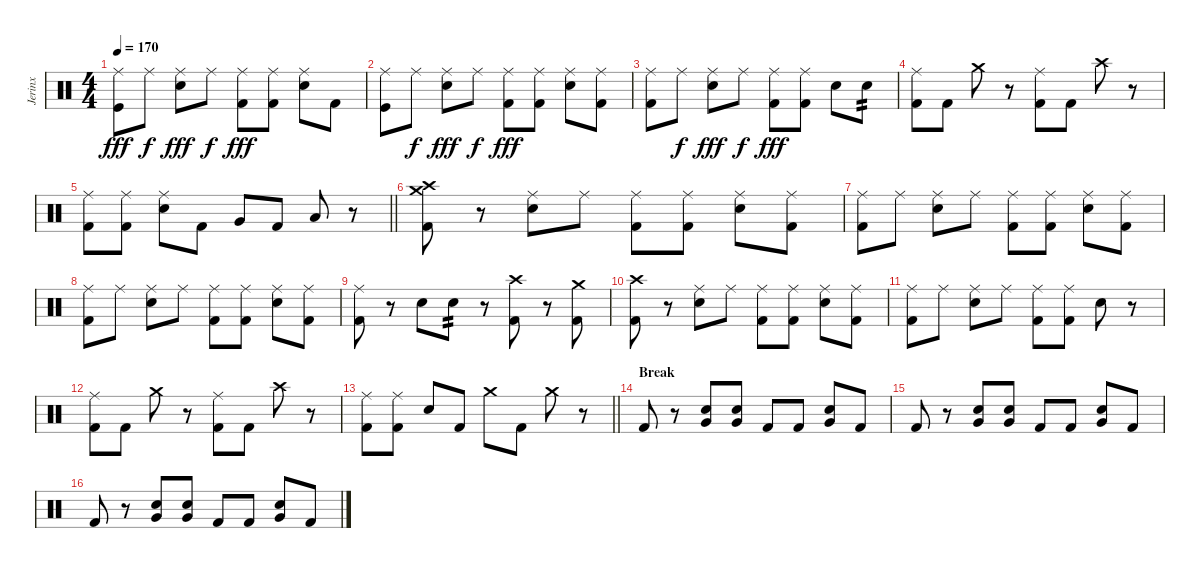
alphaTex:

\track ("Jerinx" "Jerinx") {instrument percussion}
\staff {score}
\articulation defaults
\ts (4 4)
\tempo 170
\clef neutral
\ks c
("Kick (hit)" "Ride (middle)").8{dy fff} "Ride (middle)".8{dy f} ("Snare (hit) 2" "Ride (middle)").8{dy fff} "Ride (middle)".8{dy f} ("Kick (hit) 2" "Ride (middle)").8{dy fff} ("Kick (hit) 2" "Ride (middle)").8 ("Snare (hit) 2" "Ride (middle)").8 "Kick (hit) 2".8 |
("Kick (hit)" "Ride (middle)").8 "Ride (middle)".8{dy f} ("Snare (hit) 2" "Ride (middle)").8{dy fff} "Ride (middle)".8{dy f} ("Kick (hit) 2" "Ride (middle)").8{dy fff} ("Kick (hit) 2" "Ride (middle)").8 ("Snare (hit) 2" "Ride (middle)").8 ("Kick (hit) 2" "Ride (middle)").8 |
("Kick (hit) 2" "Ride (middle)").8 "Ride (middle)".8{dy f} ("Snare (hit) 2" "Ride (middle)").8{dy fff} "Ride (middle)".8{dy f} ("Kick (hit) 2" "Ride (middle)").8{dy fff} ("Kick (hit) 2" "Ride (middle)").8 "Snare (hit) 2".8 "Snare (hit) 2".8{tp 2} |
("Kick (hit) 2" "Ride (middle)").8 "Kick (hit) 2".8 "Crash medium (hit)".8 r.8 ("Kick (hit) 2" "Ride (middle)").8 "Kick (hit) 2".8 "Crash high (hit)".8 r.8 |
\barLineRight lightlight
("Kick (hit) 2" "Ride (middle)").8 ("Kick (hit) 2" "Ride (middle)").8 ("Snare (hit) 2" "Ride (middle)").8 "Kick (hit) 2".8 "Very Low Tom (hit)".8 "Kick (hit) 2".8 "Low Tom (hit)".8 r.8 |
("Kick (hit) 2" "Crash high (hit)" "Crash medium (hit)").8 r.8 ("Snare (hit) 2" "Ride (middle)").8 "Ride (middle)".8 ("Kick (hit) 2" "Ride (middle)").8 ("Kick (hit) 2" "Ride (middle)").8 ("Snare (hit) 2" "Ride (middle)").8 ("Kick (hit) 2" "Ride (middle)").8 |
("Kick (hit) 2" "Ride (middle)").8 "Ride (middle)".8 ("Snare (hit) 2" "Ride (middle)").8 "Ride (middle)".8 ("Kick (hit) 2" "Ride (middle)").8 ("Kick (hit) 2" "Ride (middle)").8 ("Snare (hit) 2" "Ride (middle)").8 ("Kick (hit) 2" "Ride (middle)").8 |
("Kick (hit) 2" "Ride (middle)").8 "Ride (middle)".8 ("Snare (hit) 2" "Ride (middle)").8 "Ride (middle)".8 ("Kick (hit) 2" "Ride (middle)").8 ("Kick (hit) 2" "Ride (middle)").8 ("Snare (hit) 2" "Ride (middle)").8 ("Kick (hit) 2" "Ride (middle)").8 |
("Kick (hit) 2" "Ride (middle)").8 r.8 "Snare (hit) 2".8 "Snare (hit) 2".8{tp 2} r.8 ("Kick (hit) 2" "Crash high (hit)").8 r.8 ("Kick (hit) 2" "Crash medium (hit)").8 |
("Kick (hit) 2" "Crash high (hit)").8 r.8 ("Snare (hit) 2" "Ride (middle)").8 "Ride (middle)".8 ("Kick (hit) 2" "Ride (middle)").8 ("Kick (hit) 2" "Ride (middle)").8 ("Snare (hit) 2" "Ride (middle)").8 ("Kick (hit) 2" "Ride (middle)").8 |
("Kick (hit) 2" "Ride (middle)").8 "Ride (middle)".8 ("Snare (hit) 2" "Ride (middle)").8 "Ride (middle)".8 ("Kick (hit) 2" "Ride (middle)").8 ("Kick (hit) 2" "Ride (middle)").8 "Snare (hit) 2".8 r.8 |
("Kick (hit) 2" "Ride (middle)").8 "Kick (hit) 2".8 "Crash medium (hit)".8 r.8 ("Kick (hit) 2" "Ride (middle)").8 "Kick (hit) 2".8 "Crash high (hit)".8 r.8 |
\barLineRight lightlight
("Kick (hit) 2" "Ride (middle)").8 ("Kick (hit) 2" "Ride (middle)").8 "Snare (hit) 2".8 "Kick (hit) 2".8 "Crash medium (hit)".8 "Kick (hit) 2".8 "Crash medium (hit)".8 r.8 |
\section ("" "Break")
"Kick (hit) 2".8 r.8 ("Snare (hit) 2" "Very Low Tom (hit)").8 ("Snare (hit) 2" "Very Low Tom (hit)").8 "Kick (hit) 2".8 "Kick (hit) 2".8 ("Snare (hit) 2" "Very Low Tom (hit)").8 "Kick (hit) 2".8 |
"Kick (hit) 2".8 r.8 ("Snare (hit) 2" "Very Low Tom (hit)").8 ("Snare (hit) 2" "Very Low Tom (hit)").8 "Kick (hit) 2".8 "Kick (hit) 2".8 ("Snare (hit) 2" "Very Low Tom (hit)").8 "Kick (hit) 2".8 |
"Kick (hit) 2".8 r.8 ("Snare (hit) 2" "Very Low Tom (hit)").8 ("Snare (hit) 2" "Very Low Tom (hit)").8 "Kick (hit) 2".8 "Kick (hit) 2".8 ("Snare (hit) 2" "Very Low Tom (hit)").8 "Kick (hit) 2".8
